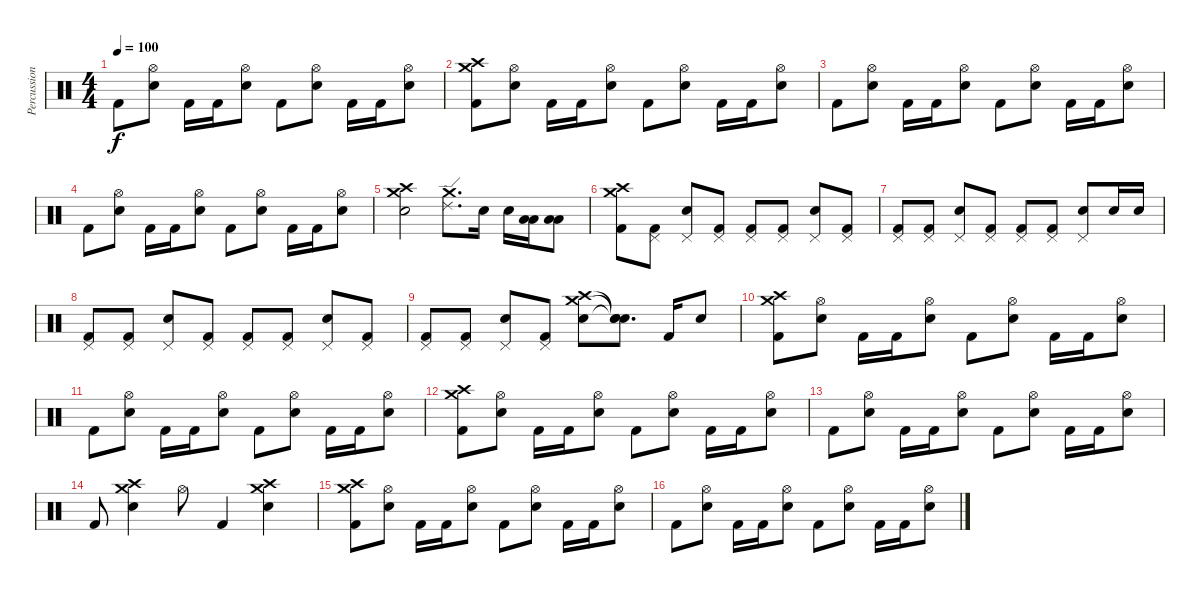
\track ("Percussion" "Percussion") {instrument percussion}
\staff {score}
\articulation defaults
\ts (4 4)
\tempo 100
\clef neutral
\ks c "Kick (hit) 2".8{dy f}
("Hi-Hat (open)" "Electric Snare (hit)").8 "Kick (hit) 2".16 "Kick (hit) 2".16 ("Hi-Hat (open)" "Electric Snare (hit)").8 "Kick (hit) 2".8 ("Hi-Hat (open)" "Electric Snare (hit)").8 "Kick (hit) 2".16 "Kick (hit) 2".16 ("Hi-Hat (open)" "Electric Snare (hit)").8 |
("Crash high (hit)" "Crash medium (hit)" "Kick (hit) 2").8 ("Hi-Hat (open)" "Electric Snare (hit)").8 "Kick (hit) 2".16 "Kick (hit) 2".16 ("Hi-Hat (open)" "Electric Snare (hit)").8 "Kick (hit) 2".8 ("Hi-Hat (open)" "Electric Snare (hit)").8 "Kick (hit) 2".16 "Kick (hit) 2".16 ("Hi-Hat (open)" "Electric Snare (hit)").8 |
"Kick (hit) 2".8 ("Hi-Hat (open)" "Electric Snare (hit)").8 "Kick (hit) 2".16 "Kick (hit) 2".16 ("Hi-Hat (open)" "Electric Snare (hit)").8 "Kick (hit) 2".8 ("Hi-Hat (open)" "Electric Snare (hit)").8 "Kick (hit) 2".16 "Kick (hit) 2".16 ("Hi-Hat (open)" "Electric Snare (hit)").8 |
"Kick (hit) 2".8 ("Hi-Hat (open)" "Electric Snare (hit)").8 "Kick (hit) 2".16 "Kick (hit) 2".16 ("Hi-Hat (open)" "Electric Snare (hit)").8 "Kick (hit) 2".8 ("Hi-Hat (open)" "Electric Snare (hit)").8 "Kick (hit) 2".16 "Kick (hit) 2".16 ("Hi-Hat (open)" "Electric Snare (hit)").8 |
("Crash high (hit)" "Crash medium (hit)" "Electric Snare (hit)").2 ("Ride (edge) 2" "Crash medium (hit)").8{d} "Electric Snare (hit)".16 "Electric Snare (hit)".16 ("Low Tom (hit)" "Low Tom (hit)").16 ("Low Tom (hit)" "Low Tom (hit)").8 |
("Crash high (hit)" "Crash medium (hit)" "Kick (hit) 2").8 ("Pedal Hi-Hat (hit)" "Kick (hit) 2").8 ("Pedal Hi-Hat (hit)" "Electric Snare (hit)").8 ("Pedal Hi-Hat (hit)" "Kick (hit) 2").8 ("Pedal Hi-Hat (hit)" "Kick (hit) 2").8 ("Pedal Hi-Hat (hit)" "Kick (hit) 2").8 ("Pedal Hi-Hat (hit)" "Electric Snare (hit)").8 ("Pedal Hi-Hat (hit)" "Kick (hit) 2").8 |
("Pedal Hi-Hat (hit)" "Kick (hit) 2").8 ("Pedal Hi-Hat (hit)" "Kick (hit) 2").8 ("Pedal Hi-Hat (hit)" "Electric Snare (hit)").8 ("Pedal Hi-Hat (hit)" "Kick (hit) 2").8 ("Pedal Hi-Hat (hit)" "Kick (hit) 2").8 ("Pedal Hi-Hat (hit)" "Kick (hit) 2").8 ("Pedal Hi-Hat (hit)" "Electric Snare (hit)").8 "Electric Snare (hit)".16 "Electric Snare (hit)".16 |
("Pedal Hi-Hat (hit)" "Kick (hit) 2").8 ("Pedal Hi-Hat (hit)" "Kick (hit) 2").8 ("Pedal Hi-Hat (hit)" "Electric Snare (hit)").8 ("Pedal Hi-Hat (hit)" "Kick (hit) 2").8 ("Pedal Hi-Hat (hit)" "Kick (hit) 2").8 ("Pedal Hi-Hat (hit)" "Kick (hit) 2").8 ("Pedal Hi-Hat (hit)" "Electric Snare (hit)").8 ("Pedal Hi-Hat (hit)" "Kick (hit) 2").8 |
("Pedal Hi-Hat (hit)" "Kick (hit) 2").8 ("Pedal Hi-Hat (hit)" "Kick (hit) 2").8 ("Pedal Hi-Hat (hit)" "Electric Snare (hit)").8 ("Pedal Hi-Hat (hit)" "Kick (hit) 2").8 ("Crash medium (hit)" "Crash high (hit)" "Electric Snare (hit)").8 ("Snare (hit)"{t} "Snare (hit)"{t} "Snare (hit)"{t}).8{d} "Kick (hit) 2".16 "Electric Snare (hit)".8 |
("Crash high (hit)" "Crash medium (hit)" "Kick (hit) 2").8 ("Hi-Hat (open)" "Electric Snare (hit)").8 "Kick (hit) 2".16 "Kick (hit) 2".16 ("Hi-Hat (open)" "Electric Snare (hit)").8 "Kick (hit) 2".8 ("Hi-Hat (open)" "Electric Snare (hit)").8 "Kick (hit) 2".16 "Kick (hit) 2".16 ("Hi-Hat (open)" "Electric Snare (hit)").8 |
"Kick (hit) 2".8 ("Hi-Hat (open)" "Electric Snare (hit)").8 "Kick (hit) 2".16 "Kick (hit) 2".16 ("Hi-Hat (open)" "Electric Snare (hit)").8 "Kick (hit) 2".8 ("Hi-Hat (open)" "Electric Snare (hit)").8 "Kick (hit) 2".16 "Kick (hit) 2".16 ("Hi-Hat (open)" "Electric Snare (hit)").8 |
("Crash high (hit)" "Crash medium (hit)" "Kick (hit) 2").8 ("Hi-Hat (open)" "Electric Snare (hit)").8 "Kick (hit) 2".16 "Kick (hit) 2".16 ("Hi-Hat (open)" "Electric Snare (hit)").8 "Kick (hit) 2".8 ("Hi-Hat (open)" "Electric Snare (hit)").8 "Kick (hit) 2".16 "Kick (hit) 2".16 ("Hi-Hat (open)" "Electric Snare (hit)").8 |
"Kick (hit) 2".8 ("Hi-Hat (open)" "Electric Snare (hit)").8 "Kick (hit) 2".16 "Kick (hit) 2".16 ("Hi-Hat (open)" "Electric Snare (hit)").8 "Kick (hit) 2".8 ("Hi-Hat (open)" "Electric Snare (hit)").8 "Kick (hit) 2".16 "Kick (hit) 2".16 ("Hi-Hat (open)" "Electric Snare (hit)").8 |
"Kick (hit) 2".8 ("Crash medium (hit)" "Crash high (hit)" "Electric Snare (hit)").4 "Hi-Hat (open)".8 "Kick (hit) 2".4 ("Crash high (hit)" "Crash medium (hit)" "Electric Snare (hit)").4 |
("Crash high (hit)" "Crash medium (hit)" "Kick (hit) 2").8 ("Hi-Hat (open)" "Electric Snare (hit)").8 "Kick (hit) 2".16 "Kick (hit) 2".16 ("Hi-Hat (open)" "Electric Snare (hit)").8 "Kick (hit) 2".8 ("Hi-Hat (open)" "Electric Snare (hit)").8 "Kick (hit) 2".16 "Kick (hit) 2".16 ("Hi-Hat (open)" "Electric Snare (hit)").8 |
"Kick (hit) 2".8 ("Hi-Hat (open)" "Electric Snare (hit)").8 "Kick (hit) 2".16 "Kick (hit) 2".16 ("Hi-Hat (open)" "Electric Snare (hit)").8 "Kick (hit) 2".8 ("Hi-Hat (open)" "Electric Snare (hit)").8 "Kick (hit) 2".16 "Kick (hit) 2".16 ("Hi-Hat (open)" "Electric Snare (hit)").8
